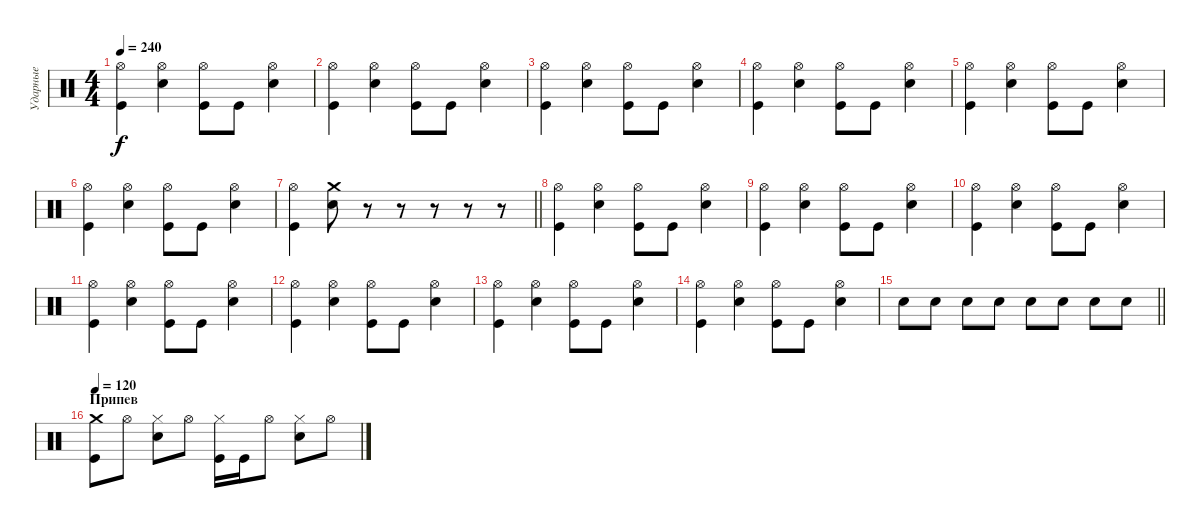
\track ("Ударные" "Ударные") {instrument percussion}
\staff {score}
\articulation defaults
\ts (4 4)
\tempo 240
\clef neutral
\ks c
("Hi-Hat (open)" "Kick (hit)").4{dy f} ("Hi-Hat (open)" "Electric Snare (hit)").4 ("Hi-Hat (open)" "Kick (hit)").8 "Kick (hit)".8 ("Hi-Hat (open)" "Electric Snare (hit)").4 |
("Hi-Hat (open)" "Kick (hit)").4 ("Hi-Hat (open)" "Electric Snare (hit)").4 ("Hi-Hat (open)" "Kick (hit)").8 "Kick (hit)".8 ("Hi-Hat (open)" "Electric Snare (hit)").4 |
("Hi-Hat (open)" "Kick (hit)").4 ("Hi-Hat (open)" "Electric Snare (hit)").4 ("Hi-Hat (open)" "Kick (hit)").8 "Kick (hit)".8 ("Hi-Hat (open)" "Electric Snare (hit)").4 |
("Hi-Hat (open)" "Kick (hit)").4 ("Hi-Hat (open)" "Electric Snare (hit)").4 ("Hi-Hat (open)" "Kick (hit)").8 "Kick (hit)".8 ("Hi-Hat (open)" "Electric Snare (hit)").4 |
("Hi-Hat (open)" "Kick (hit)").4 ("Hi-Hat (open)" "Electric Snare (hit)").4 ("Hi-Hat (open)" "Kick (hit)").8 "Kick (hit)".8 ("Hi-Hat (open)" "Electric Snare (hit)").4 |
("Hi-Hat (open)" "Kick (hit)").4 ("Hi-Hat (open)" "Electric Snare (hit)").4 ("Hi-Hat (open)" "Kick (hit)").8 "Kick (hit)".8 ("Hi-Hat (open)" "Electric Snare (hit)").4 |
\barLineRight lightlight
("Hi-Hat (open)" "Kick (hit)").4 ("Crash medium (hit)" "Electric Snare (hit)").8 r.8 r.8 r.8 r.8 r.8 |
("Hi-Hat (open)" "Kick (hit)").4 ("Hi-Hat (open)" "Electric Snare (hit)").4 ("Hi-Hat (open)" "Kick (hit)").8 "Kick (hit)".8 ("Hi-Hat (open)" "Electric Snare (hit)").4 |
("Hi-Hat (open)" "Kick (hit)").4 ("Hi-Hat (open)" "Electric Snare (hit)").4 ("Hi-Hat (open)" "Kick (hit)").8 "Kick (hit)".8 ("Hi-Hat (open)" "Electric Snare (hit)").4 |
("Hi-Hat (open)" "Kick (hit)").4 ("Hi-Hat (open)" "Electric Snare (hit)").4 ("Hi-Hat (open)" "Kick (hit)").8 "Kick (hit)".8 ("Hi-Hat (open)" "Electric Snare (hit)").4 |
("Hi-Hat (open)" "Kick (hit)").4 ("Hi-Hat (open)" "Electric Snare (hit)").4 ("Hi-Hat (open)" "Kick (hit)").8 "Kick (hit)".8 ("Hi-Hat (open)" "Electric Snare (hit)").4 |
("Hi-Hat (open)" "Kick (hit)").4 ("Hi-Hat (open)" "Electric Snare (hit)").4 ("Hi-Hat (open)" "Kick (hit)").8 "Kick (hit)".8 ("Hi-Hat (open)" "Electric Snare (hit)").4 |
("Hi-Hat (open)" "Kick (hit)").4 ("Hi-Hat (open)" "Electric Snare (hit)").4 ("Hi-Hat (open)" "Kick (hit)").8 "Kick (hit)".8 ("Hi-Hat (open)" "Electric Snare (hit)").4 |
("Hi-Hat (open)" "Kick (hit)").4 ("Hi-Hat (open)" "Electric Snare (hit)").4 ("Hi-Hat (open)" "Kick (hit)").8 "Kick (hit)".8 ("Hi-Hat (open)" "Electric Snare (hit)").4 |
\barLineRight lightlight "Electric Snare (hit)".8 "Electric Snare (hit)".8 "Electric Snare (hit)".8 "Electric Snare (hit)".8 "Electric Snare (hit)".8 "Electric Snare (hit)".8 "Electric Snare (hit)".8 "Electric Snare (hit)".8
|
\section ("" "Припев")
\tempo 120
("Crash medium (hit)" "Kick (hit)").8 "Hi-Hat (open)".8 ("Hi-Hat (closed)" "Electric Snare (hit)").8 "Hi-Hat (open)".8 ("Hi-Hat (closed)" "Kick (hit)").16 "Kick (hit)".16 "Hi-Hat (open)".8 ("Hi-Hat (closed)" "Electric Snare (hit)").8 "Hi-Hat (open)".8
